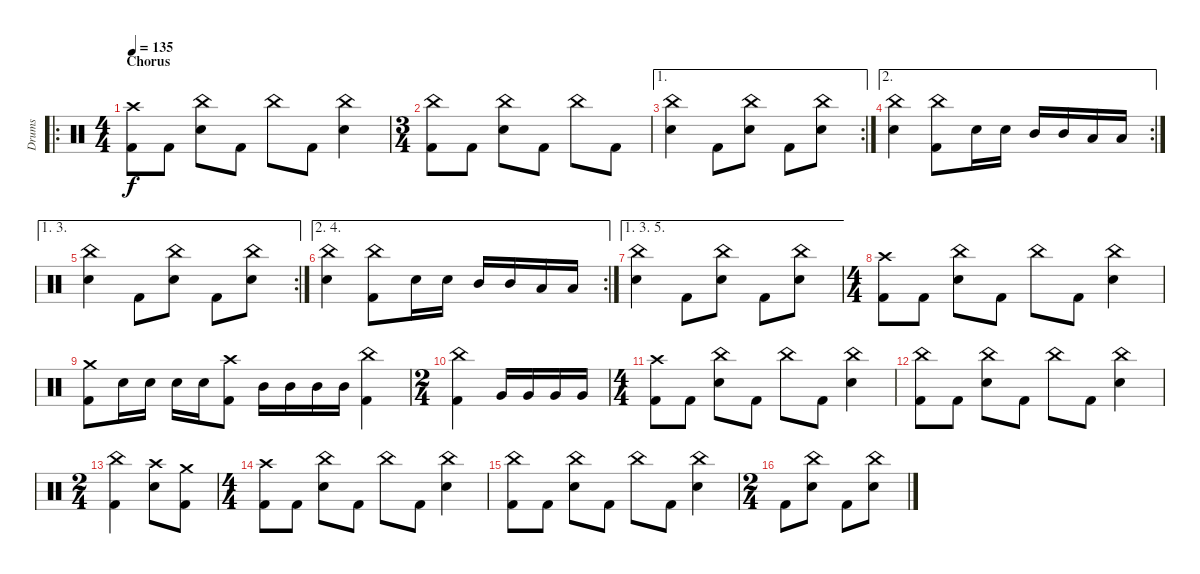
\track ("Drums" "Drums") {instrument percussion}
\staff {score}
\articulation defaults
\ro
\ts (4 4)
\section ("" "Chorus")
\tempo 135
\clef neutral
\ks c
("Crash high (hit)" "Kick (hit) 2").8{dy f} "Kick (hit) 2".8 ("China (hit)" "Electric Snare (hit)").8 "Kick (hit) 2".8 "China (hit)".8 "Kick (hit) 2".8 ("China (hit)" "Electric Snare (hit)").4 |
\ts (3 4)
("China (hit)" "Kick (hit) 2").8 "Kick (hit) 2".8 ("China (hit)" "Electric Snare (hit)").8 "Kick (hit) 2".8 "China (hit)".8 "Kick (hit) 2".8 |
\ae 1
\rc 2
("China (hit)" "Electric Snare (hit)").4 "Kick (hit) 2".8 ("China (hit)" "Electric Snare (hit)").8 "Kick (hit) 2".8 ("China (hit)" "Electric Snare (hit)").8 |
\ae 2
\rc 2
("China (hit)" "Electric Snare (hit)").4 ("China (hit)" "Kick (hit) 2").8 "Electric Snare (hit)".16 "Electric Snare (hit)".16 "Mid Tom (hit)".16 "Mid Tom (hit)".16 "Low Tom (hit)".16 "Low Tom (hit)".16 |
\ae (1 3)
\rc 2
("China (hit)" "Electric Snare (hit)").4 "Kick (hit) 2".8 ("China (hit)" "Electric Snare (hit)").8 "Kick (hit) 2".8 ("China (hit)" "Electric Snare (hit)").8 |
\ae (2 4)
\rc 2
("China (hit)" "Electric Snare (hit)").4 ("China (hit)" "Kick (hit) 2").8 "Electric Snare (hit)".16 "Electric Snare (hit)".16 "Mid Tom (hit)".16 "Mid Tom (hit)".16 "Low Tom (hit)".16 "Low Tom (hit)".16 |
\ae (1 3 5)
("China (hit)" "Electric Snare (hit)").4 "Kick (hit) 2".8 ("China (hit)" "Electric Snare (hit)").8 "Kick (hit) 2".8 ("China (hit)" "Electric Snare (hit)").8 |
\ts (4 4)
("Crash high (hit)" "Kick (hit) 2").8 "Kick (hit) 2".8 ("China (hit)" "Electric Snare (hit)").8 "Kick (hit) 2".8 "China (hit)".8 "Kick (hit) 2".8 ("China (hit)" "Electric Snare (hit)").4 |
("Crash medium (hit)" "Kick (hit) 2").8 "Electric Snare (hit)".16 "Electric Snare (hit)".16 "Electric Snare (hit)".16 "Electric Snare (hit)".16 ("Crash high (hit)" "Kick (hit) 2").8 "Mid Tom (hit)".16 "Mid Tom (hit)".16 "Mid Tom (hit)".16 "Mid Tom (hit)".16 ("China (hit)" "Kick (hit) 2").4 |
\ts (2 4)
("China (hit)" "Kick (hit) 2").4 "Very Low Tom (hit)".16 "Very Low Tom (hit)".16 "Very Low Tom (hit)".16 "Very Low Tom (hit)".16 |
\ts (4 4)
("Crash high (hit)" "Kick (hit) 2").8 "Kick (hit) 2".8 ("China (hit)" "Electric Snare (hit)").8 "Kick (hit) 2".8 "China (hit)".8 "Kick (hit) 2".8 ("China (hit)" "Electric Snare (hit)").4 |
("China (hit)" "Kick (hit) 2").8 "Kick (hit) 2".8 ("China (hit)" "Electric Snare (hit)").8 "Kick (hit) 2".8 "China (hit)".8 "Kick (hit) 2".8 ("China (hit)" "Electric Snare (hit)").4 |
\ts (2 4)
("China (hit)" "Kick (hit) 2").4 ("Crash high (hit)" "Electric Snare (hit)").8 ("Crash medium (hit)" "Kick (hit) 2").8 |
\ts (4 4)
("Crash high (hit)" "Kick (hit) 2").8 "Kick (hit) 2".8 ("China (hit)" "Electric Snare (hit)").8 "Kick (hit) 2".8 "China (hit)".8 "Kick (hit) 2".8 ("China (hit)" "Electric Snare (hit)").4 |
("China (hit)" "Kick (hit) 2").8 "Kick (hit) 2".8 ("China (hit)" "Electric Snare (hit)").8 "Kick (hit) 2".8 "China (hit)".8 "Kick (hit) 2".8 ("China (hit)" "Electric Snare (hit)").4 |
\ts (2 4)
"Kick (hit) 2".8 ("China (hit)" "Electric Snare (hit)").8 "Kick (hit) 2".8 ("China (hit)" "Electric Snare (hit)").8
